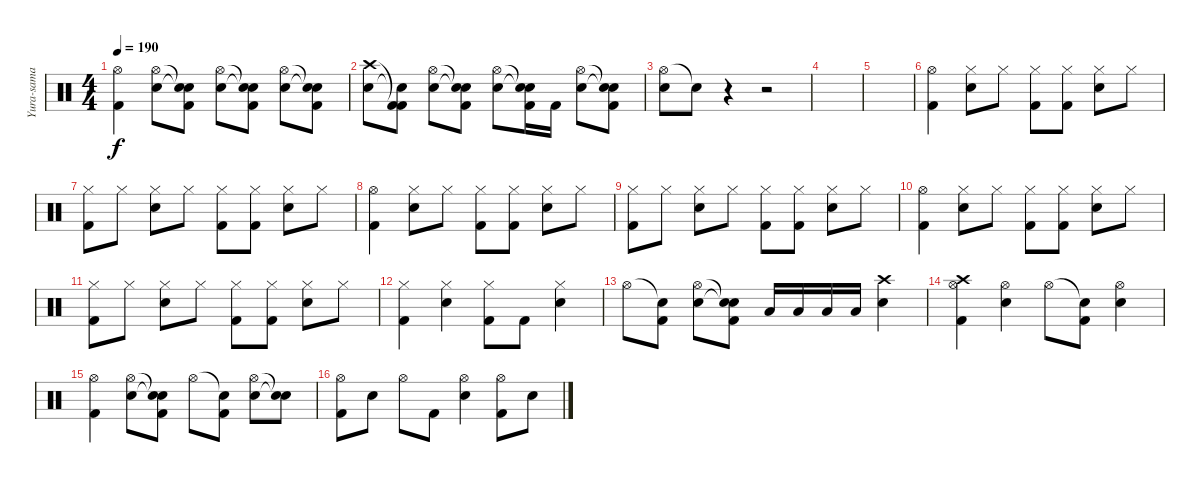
\track ("Yura-sama" "Yura-sama") {instrument percussion}
\staff {score}
\articulation defaults
\ts (4 4)
\tempo 190
\clef neutral
\ks c
("Hi-Hat (open)" "Kick (hit) 2").4{dy f} ("Hi-Hat (open)" "Electric Snare (hit)").8 ("Snare (hit)"{t} "Snare (hit)"{t} "Kick (hit) 2").8 ("Hi-Hat (open)" "Electric Snare (hit)").8 ("Snare (hit)"{t} "Snare (hit)"{t} "Kick (hit) 2").8 ("Hi-Hat (open)" "Electric Snare (hit)").8 ("Snare (hit)"{t} "Snare (hit)"{t} "Kick (hit) 2").8 |
("Crash high (hit)" "Electric Snare (hit)").8 ("Kick (hit) 2"{t} "Snare (hit)"{t} "Kick (hit) 2").8 ("Hi-Hat (open)" "Electric Snare (hit)").8 ("Snare (hit)"{t} "Snare (hit)"{t} "Kick (hit) 2").8 ("Hi-Hat (open)" "Electric Snare (hit)").8 ("Snare (hit)"{t} "Snare (hit)"{t} "Kick (hit) 2").16 "Kick (hit) 2".16 ("Hi-Hat (open)" "Electric Snare (hit)").8 ("Snare (hit)"{t} "Snare (hit)"{t} "Kick (hit) 2").8 |
("Hi-Hat (open)" "Electric Snare (hit)").8 "Snare (hit)"{t}.8 r.4 r.2 |
|
|
("Hi-Hat (open)" "Kick (hit) 2").4 ("Hi-Hat (closed)" "Electric Snare (hit)").8 "Hi-Hat (closed)".8 ("Hi-Hat (closed)" "Kick (hit) 2").8 ("Hi-Hat (closed)" "Kick (hit) 2").8 ("Hi-Hat (closed)" "Electric Snare (hit)").8 "Hi-Hat (closed)".8 |
("Hi-Hat (closed)" "Kick (hit) 2").8 "Hi-Hat (closed)".8 ("Hi-Hat (closed)" "Electric Snare (hit)").8 "Hi-Hat (closed)".8 ("Hi-Hat (closed)" "Kick (hit) 2").8 ("Hi-Hat (closed)" "Kick (hit) 2").8 ("Hi-Hat (closed)" "Electric Snare (hit)").8 "Hi-Hat (closed)".8 |
("Hi-Hat (open)" "Kick (hit) 2").4 ("Hi-Hat (closed)" "Electric Snare (hit)").8 "Hi-Hat (closed)".8 ("Hi-Hat (closed)" "Kick (hit) 2").8 ("Hi-Hat (closed)" "Kick (hit) 2").8 ("Hi-Hat (closed)" "Electric Snare (hit)").8 "Hi-Hat (closed)".8 |
("Hi-Hat (closed)" "Kick (hit) 2").8 "Hi-Hat (closed)".8 ("Hi-Hat (closed)" "Electric Snare (hit)").8 "Hi-Hat (closed)".8 ("Hi-Hat (closed)" "Kick (hit) 2").8 ("Hi-Hat (closed)" "Kick (hit) 2").8 ("Hi-Hat (closed)" "Electric Snare (hit)").8 "Hi-Hat (closed)".8 |
("Hi-Hat (open)" "Kick (hit) 2").4 ("Hi-Hat (closed)" "Electric Snare (hit)").8 "Hi-Hat (closed)".8 ("Hi-Hat (closed)" "Kick (hit) 2").8 ("Hi-Hat (closed)" "Kick (hit) 2").8 ("Hi-Hat (closed)" "Electric Snare (hit)").8 "Hi-Hat (closed)".8 |
("Hi-Hat (closed)" "Kick (hit) 2").8 "Hi-Hat (closed)".8 ("Hi-Hat (closed)" "Electric Snare (hit)").8 "Hi-Hat (closed)".8 ("Hi-Hat (closed)" "Kick (hit) 2").8 ("Hi-Hat (closed)" "Kick (hit) 2").8 ("Hi-Hat (closed)" "Electric Snare (hit)").8 "Hi-Hat (closed)".8 |
("Hi-Hat (closed)" "Kick (hit) 2").4 ("Hi-Hat (closed)" "Electric Snare (hit)").4 ("Hi-Hat (closed)" "Kick (hit) 2").8 "Kick (hit) 2".8 ("Hi-Hat (closed)" "Electric Snare (hit)").4 |
"Hi-Hat (open)".8 ("Snare (hit)"{t} "Kick (hit) 2").8 ("Hi-Hat (open)" "Electric Snare (hit)").8 ("Snare (hit)"{t} "Snare (hit)"{t} "Kick (hit) 2").8 "Low Tom (hit)".16 "Low Tom (hit)".16 "Low Tom (hit)".16 "Low Tom (hit)".16 ("Crash high (hit)" "Electric Snare (hit)").4 |
("Hi-Hat (open)" "Crash high (hit)" "Kick (hit) 2").4 ("Hi-Hat (open)" "Electric Snare (hit)").4 "Hi-Hat (open)".8 ("Snare (hit)"{t} "Kick (hit) 2").8 ("Hi-Hat (open)" "Electric Snare (hit)").4 |
("Hi-Hat (open)" "Kick (hit) 2").4 ("Hi-Hat (open)" "Electric Snare (hit)").8 ("Snare (hit)"{t} "Snare (hit)"{t} "Kick (hit) 2").8 "Hi-Hat (open)".8 ("Snare (hit)"{t} "Kick (hit) 2").8 ("Hi-Hat (open)" "Electric Snare (hit)").8 ("Snare (hit)"{t} "Snare (hit)"{t}).8 |
("Hi-Hat (open)" "Kick (hit) 2").8 "Electric Snare (hit)".8 "Hi-Hat (open)".8 "Kick (hit) 2".8 ("Hi-Hat (open)" "Electric Snare (hit)").4 ("Hi-Hat (open)" "Kick (hit) 2").8 "Electric Snare (hit)".8
